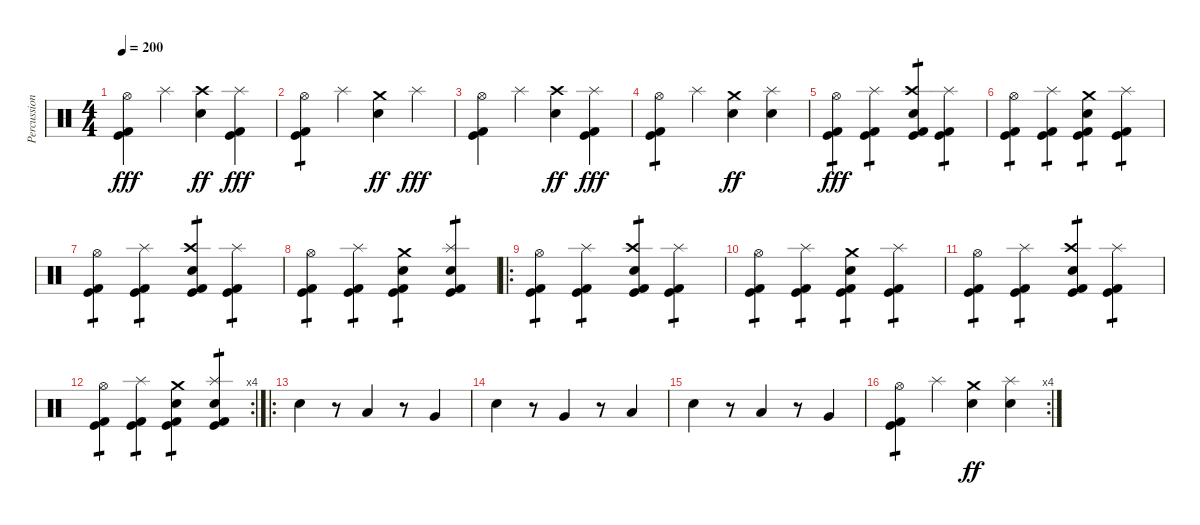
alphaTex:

\track ("Percussion" "Percussion") {instrument percussion}
\staff {score}
\articulation defaults
\ts (4 4)
\tempo 200
\clef neutral
\ks c
("Hi-Hat (open)" "Kick (hit) 2" "Kick (hit)").4{dy fff} "Splash (hit)".4 ("Crash high (hit)" "Electric Snare (hit)").4{dy ff} ("Splash (hit)" "Kick (hit) 2" "Kick (hit)").4{dy fff} |
("Hi-Hat (open)" "Kick (hit) 2" "Kick (hit)").4{tp 1} "Splash (hit)".4 ("Crash medium (hit)" "Electric Snare (hit)").4{dy ff} "Splash (hit)".4{dy fff} |
("Hi-Hat (open)" "Kick (hit) 2" "Kick (hit)").4 "Splash (hit)".4 ("Crash high (hit)" "Electric Snare (hit)").4{dy ff} ("Splash (hit)" "Kick (hit) 2" "Kick (hit)").4{dy fff} |
("Hi-Hat (open)" "Kick (hit) 2" "Kick (hit)").4{tp 1} "Splash (hit)".4 ("Crash medium (hit)" "Electric Snare (hit)").4{dy ff} ("Splash (hit)" "Electric Snare (hit)").4 |
("Hi-Hat (open)" "Kick (hit) 2" "Kick (hit)").4{tp 1 dy fff} ("Splash (hit)" "Kick (hit) 2" "Kick (hit)").4{tp 1} ("Crash high (hit)" "Electric Snare (hit)" "Kick (hit) 2" "Kick (hit)").4{tp 1} ("Splash (hit)" "Kick (hit) 2" "Kick (hit)").4{tp 1} |
("Hi-Hat (open)" "Kick (hit) 2" "Kick (hit)").4{tp 1} ("Splash (hit)" "Kick (hit) 2" "Kick (hit)").4{tp 1} ("Crash medium (hit)" "Electric Snare (hit)" "Kick (hit) 2" "Kick (hit)").4{tp 1} ("Splash (hit)" "Kick (hit) 2" "Kick (hit)").4{tp 1} |
("Hi-Hat (open)" "Kick (hit) 2" "Kick (hit)").4{tp 1} ("Splash (hit)" "Kick (hit) 2" "Kick (hit)").4{tp 1} ("Crash high (hit)" "Electric Snare (hit)" "Kick (hit) 2" "Kick (hit)").4{tp 1} ("Splash (hit)" "Kick (hit) 2" "Kick (hit)").4{tp 1} |
("Hi-Hat (open)" "Kick (hit) 2" "Kick (hit)").4{tp 1} ("Splash (hit)" "Kick (hit) 2" "Kick (hit)").4{tp 1} ("Crash medium (hit)" "Electric Snare (hit)" "Kick (hit) 2" "Kick (hit)").4{tp 1} ("Splash (hit)" "Electric Snare (hit)" "Kick (hit) 2" "Kick (hit)").4{tp 1} |
\ro
("Hi-Hat (open)" "Kick (hit) 2" "Kick (hit)").4{tp 1} ("Splash (hit)" "Kick (hit) 2" "Kick (hit)").4{tp 1} ("Crash high (hit)" "Electric Snare (hit)" "Kick (hit) 2" "Kick (hit)").4{tp 1} ("Splash (hit)" "Kick (hit) 2" "Kick (hit)").4{tp 1} |
("Hi-Hat (open)" "Kick (hit) 2" "Kick (hit)").4{tp 1} ("Splash (hit)" "Kick (hit) 2" "Kick (hit)").4{tp 1} ("Crash medium (hit)" "Electric Snare (hit)" "Kick (hit) 2" "Kick (hit)").4{tp 1} ("Splash (hit)" "Kick (hit) 2" "Kick (hit)").4{tp 1} |
("Hi-Hat (open)" "Kick (hit) 2" "Kick (hit)").4{tp 1} ("Splash (hit)" "Kick (hit) 2" "Kick (hit)").4{tp 1} ("Crash high (hit)" "Electric Snare (hit)" "Kick (hit) 2" "Kick (hit)").4{tp 1} ("Splash (hit)" "Kick (hit) 2" "Kick (hit)").4{tp 1} |
\rc 4
("Hi-Hat (open)" "Kick (hit) 2" "Kick (hit)").4{tp 1} ("Splash (hit)" "Kick (hit) 2" "Kick (hit)").4{tp 1} ("Crash medium (hit)" "Electric Snare (hit)" "Kick (hit) 2" "Kick (hit)").4{tp 1} ("Splash (hit)" "Electric Snare (hit)" "Kick (hit) 2" "Kick (hit)").4{tp 1} |
\ro "Electric Snare (hit)".4
r.8 "Low Tom (hit)".4 r.8 "Very Low Tom (hit)".4 |
"Electric Snare (hit)".4 r.8 "Very Low Tom (hit)".4 r.8 "Low Floor Tom (hit)".4 |
"Electric Snare (hit)".4 r.8 "Low Tom (hit)".4 r.8 "Very Low Tom (hit)".4 |
\rc 4
("Hi-Hat (open)" "Kick (hit) 2" "Kick (hit)").4{tp 1} "Splash (hit)".4 ("Crash medium (hit)" "Electric Snare (hit)").4{dy ff} ("Splash (hit)" "Electric Snare (hit)").4
